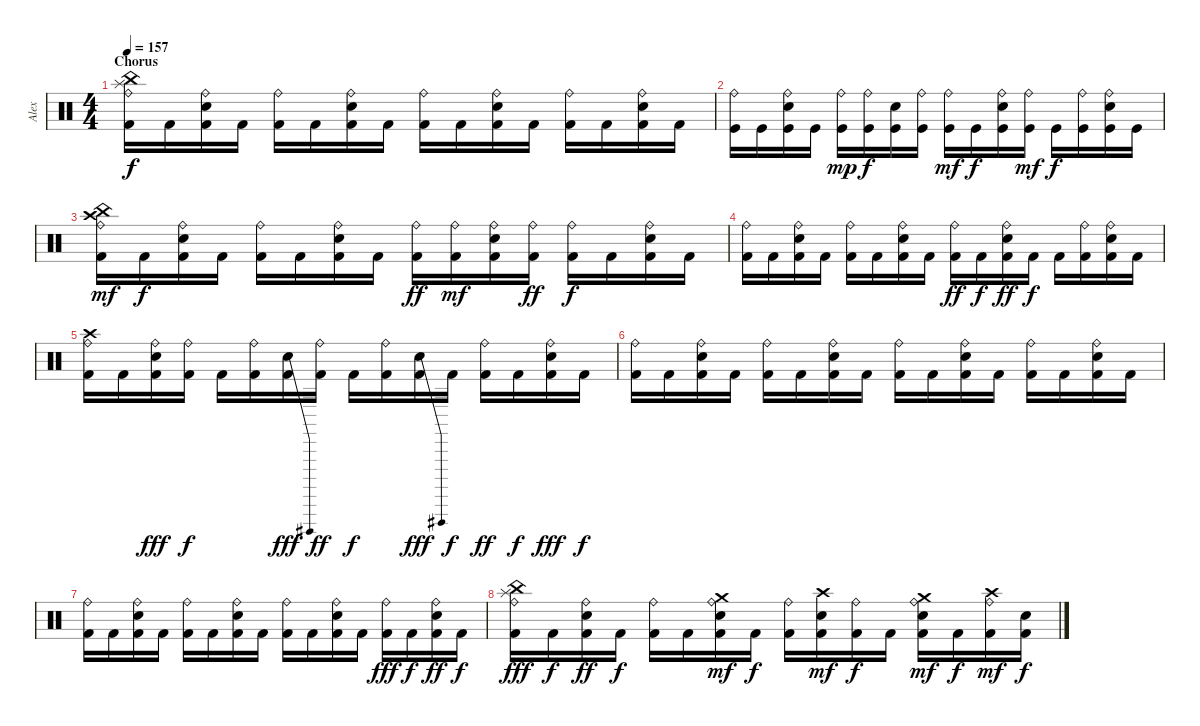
\track ("Alex" "Alex") {instrument percussion}
\staff {score}
\articulation defaults
\ts (4 4)
\section ("" "Chorus")
\tempo 157
\clef neutral
\ks c
("China (hit)" "Splash (hit)" "Ride (bell)" "Kick (hit) 2").16{dy f} "Kick (hit) 2".16 ("Ride (bell)" "Electric Snare (hit)" "Kick (hit) 2").16 "Kick (hit) 2".16 ("Ride (bell)" "Kick (hit) 2").16 "Kick (hit) 2".16 ("Ride (bell)" "Electric Snare (hit)" "Kick (hit) 2").16 "Kick (hit) 2".16 ("Ride (bell)" "Kick (hit) 2").16 "Kick (hit) 2".16 ("Ride (bell)" "Electric Snare (hit)" "Kick (hit) 2").16 "Kick (hit) 2".16 ("Ride (bell)" "Kick (hit) 2").16 "Kick (hit) 2".16 ("Ride (bell)" "Electric Snare (hit)" "Kick (hit) 2").16 "Kick (hit) 2".16 |
("Ride (bell)" "Kick (hit)").16 "Kick (hit)".16 ("Ride (bell)" "Electric Snare (hit)" "Kick (hit)").16 "Kick (hit)".16 ("Ride (bell)" "Kick (hit)").16{dy mp} ("Ride (bell)" "Kick (hit)").16{dy f} ("Electric Snare (hit)" "Kick (hit)").16 ("Ride (bell)" "Kick (hit)").16 ("Ride (bell)" "Kick (hit)").16{dy mf} "Kick (hit)".16{dy f} ("Ride (bell)" "Electric Snare (hit)" "Kick (hit)").16 ("Ride (bell)" "Kick (hit)").16{dy mf} "Kick (hit)".16{dy f} ("Ride (bell)" "Kick (hit)").16 ("Ride (bell)" "Electric Snare (hit)" "Kick (hit)").16 "Kick (hit)".16 |
("Crash high (hit)" "China (hit)" "Ride (bell)" "Kick (hit) 2").16{dy mf} "Kick (hit) 2".16{dy f} ("Ride (bell)" "Electric Snare (hit)" "Kick (hit) 2").16 "Kick (hit) 2".16 ("Ride (bell)" "Kick (hit) 2").16 "Kick (hit) 2".16 ("Ride (bell)" "Electric Snare (hit)" "Kick (hit) 2").16 "Kick (hit) 2".16 ("Ride (bell)" "Kick (hit) 2").16{dy ff} ("Ride (bell)" "Kick (hit) 2").16{dy mf} ("Ride (bell)" "Electric Snare (hit)" "Kick (hit) 2").16 ("Ride (bell)" "Kick (hit) 2").16{dy ff} ("Ride (bell)" "Kick (hit) 2").16{dy f} "Kick (hit) 2".16 ("Ride (bell)" "Electric Snare (hit)" "Kick (hit) 2").16 "Kick (hit) 2".16 |
("Ride (bell)" "Kick (hit) 2").16 "Kick (hit) 2".16 ("Ride (bell)" "Electric Snare (hit)" "Kick (hit) 2").16 "Kick (hit) 2".16 ("Ride (bell)" "Kick (hit) 2").16 "Kick (hit) 2".16 ("Ride (bell)" "Electric Snare (hit)" "Kick (hit) 2").16 "Kick (hit) 2".16 ("Ride (bell)" "Kick (hit) 2").16{dy ff} "Kick (hit) 2".16{dy f} ("Ride (bell)" "Electric Snare (hit)" "Kick (hit) 2").16{dy ff} "Kick (hit) 2".16{dy f} "Kick (hit) 2".16 ("Ride (bell)" "Kick (hit) 2").16 ("Ride (bell)" "Electric Snare (hit)" "Kick (hit) 2").16 "Kick (hit) 2".16 |
("Crash high (hit)" "Ride (bell)" "Kick (hit) 2").16 "Kick (hit) 2".16 ("Ride (bell)" "Electric Snare (hit)" "Kick (hit) 2").16{dy fff} ("Ride (bell)" "Kick (hit) 2").16{dy f} "Kick (hit) 2".16 ("Ride (bell)" "Kick (hit) 2").16 ("Electric Snare (hit)"{be (bend 0 0 60 4)} "Kick (hit) 2").16{dy fff} ("Ride (bell)" "Kick (hit) 2").16{dy ff} "Kick (hit) 2".16{dy f} ("Ride (bell)" "Kick (hit) 2").16 ("Electric Snare (hit)"{be (bend 0 0 60 12)} "Kick (hit) 2").16{dy fff} "Kick (hit) 2".16{dy f} ("Ride (bell)" "Kick (hit) 2").16{dy ff} "Kick (hit) 2".16{dy f} ("Ride (bell)" "Electric Snare (hit)" "Kick (hit) 2").16{dy fff} "Kick (hit) 2".16{dy f} |
("Ride (bell)" "Kick (hit) 2").16 "Kick (hit) 2".16 ("Ride (bell)" "Electric Snare (hit)" "Kick (hit) 2").16 "Kick (hit) 2".16 ("Ride (bell)" "Kick (hit) 2").16 "Kick (hit) 2".16 ("Ride (bell)" "Electric Snare (hit)" "Kick (hit) 2").16 "Kick (hit) 2".16 ("Ride (bell)" "Kick (hit) 2").16 "Kick (hit) 2".16 ("Ride (bell)" "Electric Snare (hit)" "Kick (hit) 2").16 "Kick (hit) 2".16 ("Ride (bell)" "Kick (hit) 2").16 "Kick (hit) 2".16 ("Ride (bell)" "Electric Snare (hit)" "Kick (hit) 2").16 "Kick (hit) 2".16 |
("Ride (bell)" "Kick (hit) 2").16 "Kick (hit) 2".16 ("Ride (bell)" "Electric Snare (hit)" "Kick (hit) 2").16 "Kick (hit) 2".16 ("Ride (bell)" "Kick (hit) 2").16 "Kick (hit) 2".16 ("Ride (bell)" "Electric Snare (hit)" "Kick (hit) 2").16 "Kick (hit) 2".16 ("Ride (bell)" "Kick (hit) 2").16 "Kick (hit) 2".16 ("Ride (bell)" "Electric Snare (hit)" "Kick (hit) 2").16 "Kick (hit) 2".16 ("Ride (bell)" "Kick (hit) 2").16{dy fff} "Kick (hit) 2".16{dy f} ("Ride (bell)" "Electric Snare (hit)" "Kick (hit) 2").16{dy ff} "Kick (hit) 2".16{dy f} |
("Splash (hit)" "China (hit)" "Ride (bell)" "Kick (hit) 2").16{dy fff} "Kick (hit) 2".16{dy f} ("Ride (bell)" "Electric Snare (hit)" "Kick (hit) 2").16{dy ff} "Kick (hit) 2".16{dy f} ("Ride (bell)" "Kick (hit) 2").16 "Kick (hit) 2".16 ("Crash medium (hit)" "Ride (bell)" "Electric Snare (hit)" "Kick (hit) 2").16{dy mf} "Kick (hit) 2".16{dy f} ("Ride (bell)" "Kick (hit) 2").16 ("Crash high (hit)" "Electric Snare (hit)" "Kick (hit) 2").16{dy mf} ("Ride (bell)" "Kick (hit) 2").16{dy f} "Kick (hit) 2".16 ("Crash medium (hit)" "Ride (bell)" "Electric Snare (hit)" "Kick (hit) 2").16{dy mf} "Kick (hit) 2".16{dy f} ("Crash high (hit)" "Ride (bell)" "Kick (hit) 2").16{dy mf} ("Electric Snare (hit)" "Kick (hit) 2").16{dy f}
